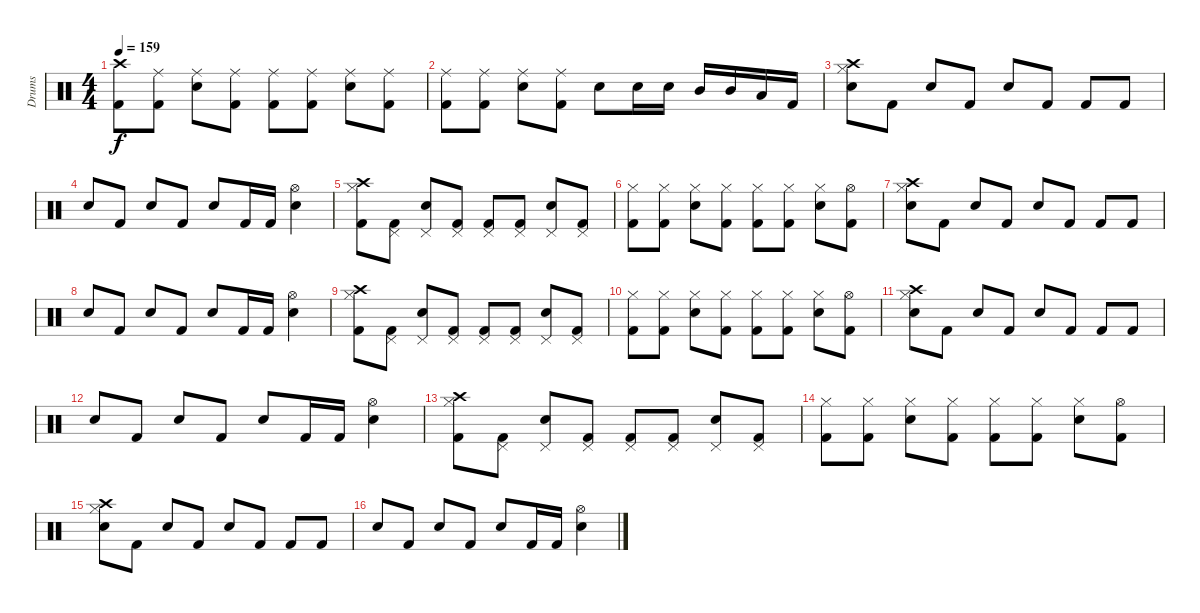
\track ("Drums" "Drums") {instrument percussion}
\staff {score}
\articulation defaults
\ts (4 4)
\tempo 159
\clef neutral
\ks c
("Crash high (hit)" "Kick (hit) 2").8{dy f} ("Ride (middle)" "Kick (hit) 2").8 ("Ride (middle)" "Snare (hit) 2").8 ("Ride (middle)" "Kick (hit) 2").8 ("Ride (middle)" "Kick (hit) 2").8 ("Ride (middle)" "Kick (hit) 2").8 ("Ride (middle)" "Snare (hit) 2").8 ("Ride (middle)" "Kick (hit) 2").8 |
("Ride (middle)" "Kick (hit) 2").8 ("Ride (middle)" "Kick (hit) 2").8 ("Ride (middle)" "Snare (hit) 2").8 ("Ride (middle)" "Kick (hit) 2").8 "Electric Snare (hit)".8 "Snare (hit) 2".16 "Snare (hit) 2".16 "Mid Tom (hit)".16 "Mid Tom (hit)".16 "Low Floor Tom (hit)".16 "Kick (hit) 2".16 |
("Crash high (hit)" "Hi-Hat (closed)" "Snare (hit) 2").8 "Kick (hit) 2".8 "Snare (hit) 2".8 "Kick (hit) 2".8 "Snare (hit) 2".8 "Kick (hit) 2".8 "Kick (hit) 2".8 "Kick (hit) 2".8 |
"Snare (hit) 2".8 "Kick (hit) 2".8 "Snare (hit) 2".8 "Kick (hit) 2".8 "Snare (hit) 2".8 "Kick (hit) 2".16 "Kick (hit) 2".16 ("Hi-Hat (open)" "Snare (hit) 2").4 |
("Crash high (hit)" "Hi-Hat (closed)" "Kick (hit) 2").8 ("Pedal Hi-Hat (hit)" "Kick (hit) 2").8 ("Pedal Hi-Hat (hit)" "Snare (hit) 2").8 ("Pedal Hi-Hat (hit)" "Kick (hit) 2").8 ("Pedal Hi-Hat (hit)" "Kick (hit) 2").8 ("Pedal Hi-Hat (hit)" "Kick (hit) 2").8 ("Pedal Hi-Hat (hit)" "Snare (hit) 2").8 ("Pedal Hi-Hat (hit)" "Kick (hit) 2").8 |
("Hi-Hat (closed)" "Kick (hit) 2").8 ("Hi-Hat (closed)" "Kick (hit) 2").8 ("Hi-Hat (closed)" "Snare (hit) 2").8 ("Hi-Hat (closed)" "Kick (hit) 2").8 ("Hi-Hat (closed)" "Kick (hit) 2").8 ("Hi-Hat (closed)" "Kick (hit) 2").8 ("Hi-Hat (closed)" "Snare (hit) 2").8 ("Hi-Hat (open)" "Kick (hit) 2").8 |
("Crash high (hit)" "Hi-Hat (closed)" "Snare (hit) 2").8 "Kick (hit) 2".8 "Snare (hit) 2".8 "Kick (hit) 2".8 "Snare (hit) 2".8 "Kick (hit) 2".8 "Kick (hit) 2".8 "Kick (hit) 2".8 |
"Snare (hit) 2".8 "Kick (hit) 2".8 "Snare (hit) 2".8 "Kick (hit) 2".8 "Snare (hit) 2".8 "Kick (hit) 2".16 "Kick (hit) 2".16 ("Hi-Hat (open)" "Snare (hit) 2").4 |
("Crash high (hit)" "Hi-Hat (closed)" "Kick (hit) 2").8 ("Pedal Hi-Hat (hit)" "Kick (hit) 2").8 ("Pedal Hi-Hat (hit)" "Snare (hit) 2").8 ("Pedal Hi-Hat (hit)" "Kick (hit) 2").8 ("Pedal Hi-Hat (hit)" "Kick (hit) 2").8 ("Pedal Hi-Hat (hit)" "Kick (hit) 2").8 ("Pedal Hi-Hat (hit)" "Snare (hit) 2").8 ("Pedal Hi-Hat (hit)" "Kick (hit) 2").8 |
("Hi-Hat (closed)" "Kick (hit) 2").8 ("Hi-Hat (closed)" "Kick (hit) 2").8 ("Hi-Hat (closed)" "Snare (hit) 2").8 ("Hi-Hat (closed)" "Kick (hit) 2").8 ("Hi-Hat (closed)" "Kick (hit) 2").8 ("Hi-Hat (closed)" "Kick (hit) 2").8 ("Hi-Hat (closed)" "Snare (hit) 2").8 ("Hi-Hat (open)" "Kick (hit) 2").8 |
("Crash high (hit)" "Hi-Hat (closed)" "Snare (hit) 2").8 "Kick (hit) 2".8 "Snare (hit) 2".8 "Kick (hit) 2".8 "Snare (hit) 2".8 "Kick (hit) 2".8 "Kick (hit) 2".8 "Kick (hit) 2".8 |
"Snare (hit) 2".8 "Kick (hit) 2".8 "Snare (hit) 2".8 "Kick (hit) 2".8 "Snare (hit) 2".8 "Kick (hit) 2".16 "Kick (hit) 2".16 ("Hi-Hat (open)" "Snare (hit) 2").4 |
("Crash high (hit)" "Hi-Hat (closed)" "Kick (hit) 2").8 ("Pedal Hi-Hat (hit)" "Kick (hit) 2").8 ("Pedal Hi-Hat (hit)" "Snare (hit) 2").8 ("Pedal Hi-Hat (hit)" "Kick (hit) 2").8 ("Pedal Hi-Hat (hit)" "Kick (hit) 2").8 ("Pedal Hi-Hat (hit)" "Kick (hit) 2").8 ("Pedal Hi-Hat (hit)" "Snare (hit) 2").8 ("Pedal Hi-Hat (hit)" "Kick (hit) 2").8 |
("Hi-Hat (closed)" "Kick (hit) 2").8 ("Hi-Hat (closed)" "Kick (hit) 2").8 ("Hi-Hat (closed)" "Snare (hit) 2").8 ("Hi-Hat (closed)" "Kick (hit) 2").8 ("Hi-Hat (closed)" "Kick (hit) 2").8 ("Hi-Hat (closed)" "Kick (hit) 2").8 ("Hi-Hat (closed)" "Snare (hit) 2").8 ("Hi-Hat (open)" "Kick (hit) 2").8 |
("Crash high (hit)" "Hi-Hat (closed)" "Snare (hit) 2").8 "Kick (hit) 2".8 "Snare (hit) 2".8 "Kick (hit) 2".8 "Snare (hit) 2".8 "Kick (hit) 2".8 "Kick (hit) 2".8 "Kick (hit) 2".8 |
"Snare (hit) 2".8 "Kick (hit) 2".8 "Snare (hit) 2".8 "Kick (hit) 2".8 "Snare (hit) 2".8 "Kick (hit) 2".16 "Kick (hit) 2".16 ("Hi-Hat (open)" "Snare (hit) 2").4
